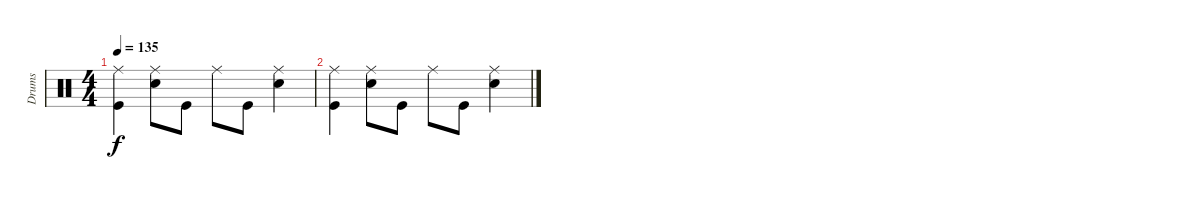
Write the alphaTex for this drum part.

\track ("Drums" "Drums") {instrument percussion}
\staff {score}
\articulation defaults
\ts (4 4)
\tempo 135
\clef neutral
\ks c
("Ride (middle)" "Kick (hit)").4{dy f} ("Ride (middle)" "Snare (hit) 2").8 "Kick (hit)".8 "Ride (middle)".8 "Kick (hit)".8 ("Ride (middle)" "Snare (hit) 2").4 |
("Ride (middle)" "Kick (hit)").4 ("Ride (middle)" "Snare (hit) 2").8 "Kick (hit)".8 "Ride (middle)".8 "Kick (hit)".8 ("Ride (middle)" "Snare (hit) 2").4
